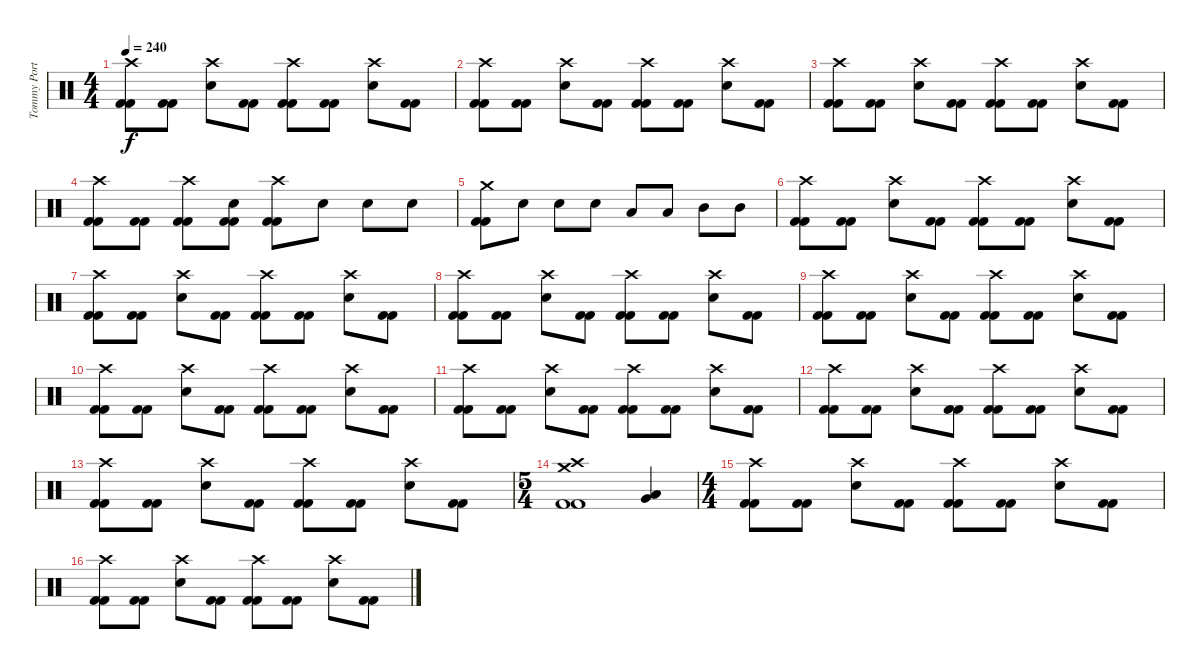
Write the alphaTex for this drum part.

\track ("Tommy Portimo " "Tommy Port") {instrument percussion}
\staff {score}
\articulation defaults
\ts (4 4)
\tempo 240
\clef neutral
\ks c
("Crash high (hit)" "Kick (hit) 2" "Kick (hit) 2").8{dy f} ("Kick (hit) 2" "Kick (hit) 2").8 ("Crash high (hit)" "Electric Snare (hit)").8 ("Kick (hit) 2" "Kick (hit) 2").8 ("Crash high (hit)" "Kick (hit) 2" "Kick (hit) 2").8 ("Kick (hit) 2" "Kick (hit) 2").8 ("Crash high (hit)" "Electric Snare (hit)").8 ("Kick (hit) 2" "Kick (hit) 2").8 |
("Crash high (hit)" "Kick (hit) 2" "Kick (hit) 2").8 ("Kick (hit) 2" "Kick (hit) 2").8 ("Crash high (hit)" "Electric Snare (hit)").8 ("Kick (hit) 2" "Kick (hit) 2").8 ("Crash high (hit)" "Kick (hit) 2" "Kick (hit) 2").8 ("Kick (hit) 2" "Kick (hit) 2").8 ("Crash high (hit)" "Electric Snare (hit)").8 ("Kick (hit) 2" "Kick (hit) 2").8 |
("Crash high (hit)" "Kick (hit) 2" "Kick (hit) 2").8 ("Kick (hit) 2" "Kick (hit) 2").8 ("Crash high (hit)" "Electric Snare (hit)").8 ("Kick (hit) 2" "Kick (hit) 2").8 ("Crash high (hit)" "Kick (hit) 2" "Kick (hit) 2").8 ("Kick (hit) 2" "Kick (hit) 2").8 ("Crash high (hit)" "Electric Snare (hit)").8 ("Kick (hit) 2" "Kick (hit) 2").8 |
("Crash high (hit)" "Kick (hit) 2" "Kick (hit) 2").8 ("Kick (hit) 2" "Kick (hit) 2").8 ("Crash high (hit)" "Kick (hit) 2" "Kick (hit) 2").8 ("Electric Snare (hit)" "Kick (hit) 2" "Kick (hit) 2").8 ("Crash high (hit)" "Kick (hit) 2" "Kick (hit) 2").8 "Electric Snare (hit)".8 "Electric Snare (hit)".8 "Electric Snare (hit)".8 |
("Crash medium (hit)" "Kick (hit) 2" "Kick (hit) 2").8 "Electric Snare (hit)".8 "Electric Snare (hit)".8 "Electric Snare (hit)".8 "Low Tom (hit)".8 "Low Tom (hit)".8 "Mid Tom (hit)".8 "Mid Tom (hit)".8 |
("Crash high (hit)" "Kick (hit) 2" "Kick (hit) 2").8 ("Kick (hit) 2" "Kick (hit) 2").8 ("Crash high (hit)" "Electric Snare (hit)").8 ("Kick (hit) 2" "Kick (hit) 2").8 ("Crash high (hit)" "Kick (hit) 2" "Kick (hit) 2").8 ("Kick (hit) 2" "Kick (hit) 2").8 ("Crash high (hit)" "Electric Snare (hit)").8 ("Kick (hit) 2" "Kick (hit) 2").8 |
("Crash high (hit)" "Kick (hit) 2" "Kick (hit) 2").8 ("Kick (hit) 2" "Kick (hit) 2").8 ("Crash high (hit)" "Electric Snare (hit)").8 ("Kick (hit) 2" "Kick (hit) 2").8 ("Crash high (hit)" "Kick (hit) 2" "Kick (hit) 2").8 ("Kick (hit) 2" "Kick (hit) 2").8 ("Crash high (hit)" "Electric Snare (hit)").8 ("Kick (hit) 2" "Kick (hit) 2").8 |
("Crash high (hit)" "Kick (hit) 2" "Kick (hit) 2").8 ("Kick (hit) 2" "Kick (hit) 2").8 ("Crash high (hit)" "Electric Snare (hit)").8 ("Kick (hit) 2" "Kick (hit) 2").8 ("Crash high (hit)" "Kick (hit) 2" "Kick (hit) 2").8 ("Kick (hit) 2" "Kick (hit) 2").8 ("Crash high (hit)" "Electric Snare (hit)").8 ("Kick (hit) 2" "Kick (hit) 2").8 |
("Crash high (hit)" "Kick (hit) 2" "Kick (hit) 2").8 ("Kick (hit) 2" "Kick (hit) 2").8 ("Crash high (hit)" "Electric Snare (hit)").8 ("Kick (hit) 2" "Kick (hit) 2").8 ("Crash high (hit)" "Kick (hit) 2" "Kick (hit) 2").8 ("Kick (hit) 2" "Kick (hit) 2").8 ("Crash high (hit)" "Electric Snare (hit)").8 ("Kick (hit) 2" "Kick (hit) 2").8 |
("Crash high (hit)" "Kick (hit) 2" "Kick (hit) 2").8 ("Kick (hit) 2" "Kick (hit) 2").8 ("Crash high (hit)" "Electric Snare (hit)").8 ("Kick (hit) 2" "Kick (hit) 2").8 ("Crash high (hit)" "Kick (hit) 2" "Kick (hit) 2").8 ("Kick (hit) 2" "Kick (hit) 2").8 ("Crash high (hit)" "Electric Snare (hit)").8 ("Kick (hit) 2" "Kick (hit) 2").8 |
("Crash high (hit)" "Kick (hit) 2" "Kick (hit) 2").8 ("Kick (hit) 2" "Kick (hit) 2").8 ("Crash high (hit)" "Electric Snare (hit)").8 ("Kick (hit) 2" "Kick (hit) 2").8 ("Crash high (hit)" "Kick (hit) 2" "Kick (hit) 2").8 ("Kick (hit) 2" "Kick (hit) 2").8 ("Crash high (hit)" "Electric Snare (hit)").8 ("Kick (hit) 2" "Kick (hit) 2").8 |
("Crash high (hit)" "Kick (hit) 2" "Kick (hit) 2").8 ("Kick (hit) 2" "Kick (hit) 2").8 ("Crash high (hit)" "Electric Snare (hit)").8 ("Kick (hit) 2" "Kick (hit) 2").8 ("Crash high (hit)" "Kick (hit) 2" "Kick (hit) 2").8 ("Kick (hit) 2" "Kick (hit) 2").8 ("Crash high (hit)" "Electric Snare (hit)").8 ("Kick (hit) 2" "Kick (hit) 2").8 |
("Crash high (hit)" "Kick (hit) 2" "Kick (hit) 2").8 ("Kick (hit) 2" "Kick (hit) 2").8 ("Crash high (hit)" "Electric Snare (hit)").8 ("Kick (hit) 2" "Kick (hit) 2").8 ("Crash high (hit)" "Kick (hit) 2" "Kick (hit) 2").8 ("Kick (hit) 2" "Kick (hit) 2").8 ("Crash high (hit)" "Electric Snare (hit)").8 ("Kick (hit) 2" "Kick (hit) 2").8 |
\ts (5 4)
("Crash medium (hit)" "Crash high (hit)" "Kick (hit) 2" "Kick (hit) 2").1 ("Low Tom (hit)" "Very Low Tom (hit)").4 |
\ts (4 4)
("Crash high (hit)" "Kick (hit) 2" "Kick (hit) 2").8 ("Kick (hit) 2" "Kick (hit) 2").8 ("Crash high (hit)" "Electric Snare (hit)").8 ("Kick (hit) 2" "Kick (hit) 2").8 ("Crash high (hit)" "Kick (hit) 2" "Kick (hit) 2").8 ("Kick (hit) 2" "Kick (hit) 2").8 ("Crash high (hit)" "Electric Snare (hit)").8 ("Kick (hit) 2" "Kick (hit) 2").8 |
("Crash high (hit)" "Kick (hit) 2" "Kick (hit) 2").8 ("Kick (hit) 2" "Kick (hit) 2").8 ("Crash high (hit)" "Electric Snare (hit)").8 ("Kick (hit) 2" "Kick (hit) 2").8 ("Crash high (hit)" "Kick (hit) 2" "Kick (hit) 2").8 ("Kick (hit) 2" "Kick (hit) 2").8 ("Crash high (hit)" "Electric Snare (hit)").8 ("Kick (hit) 2" "Kick (hit) 2").8
